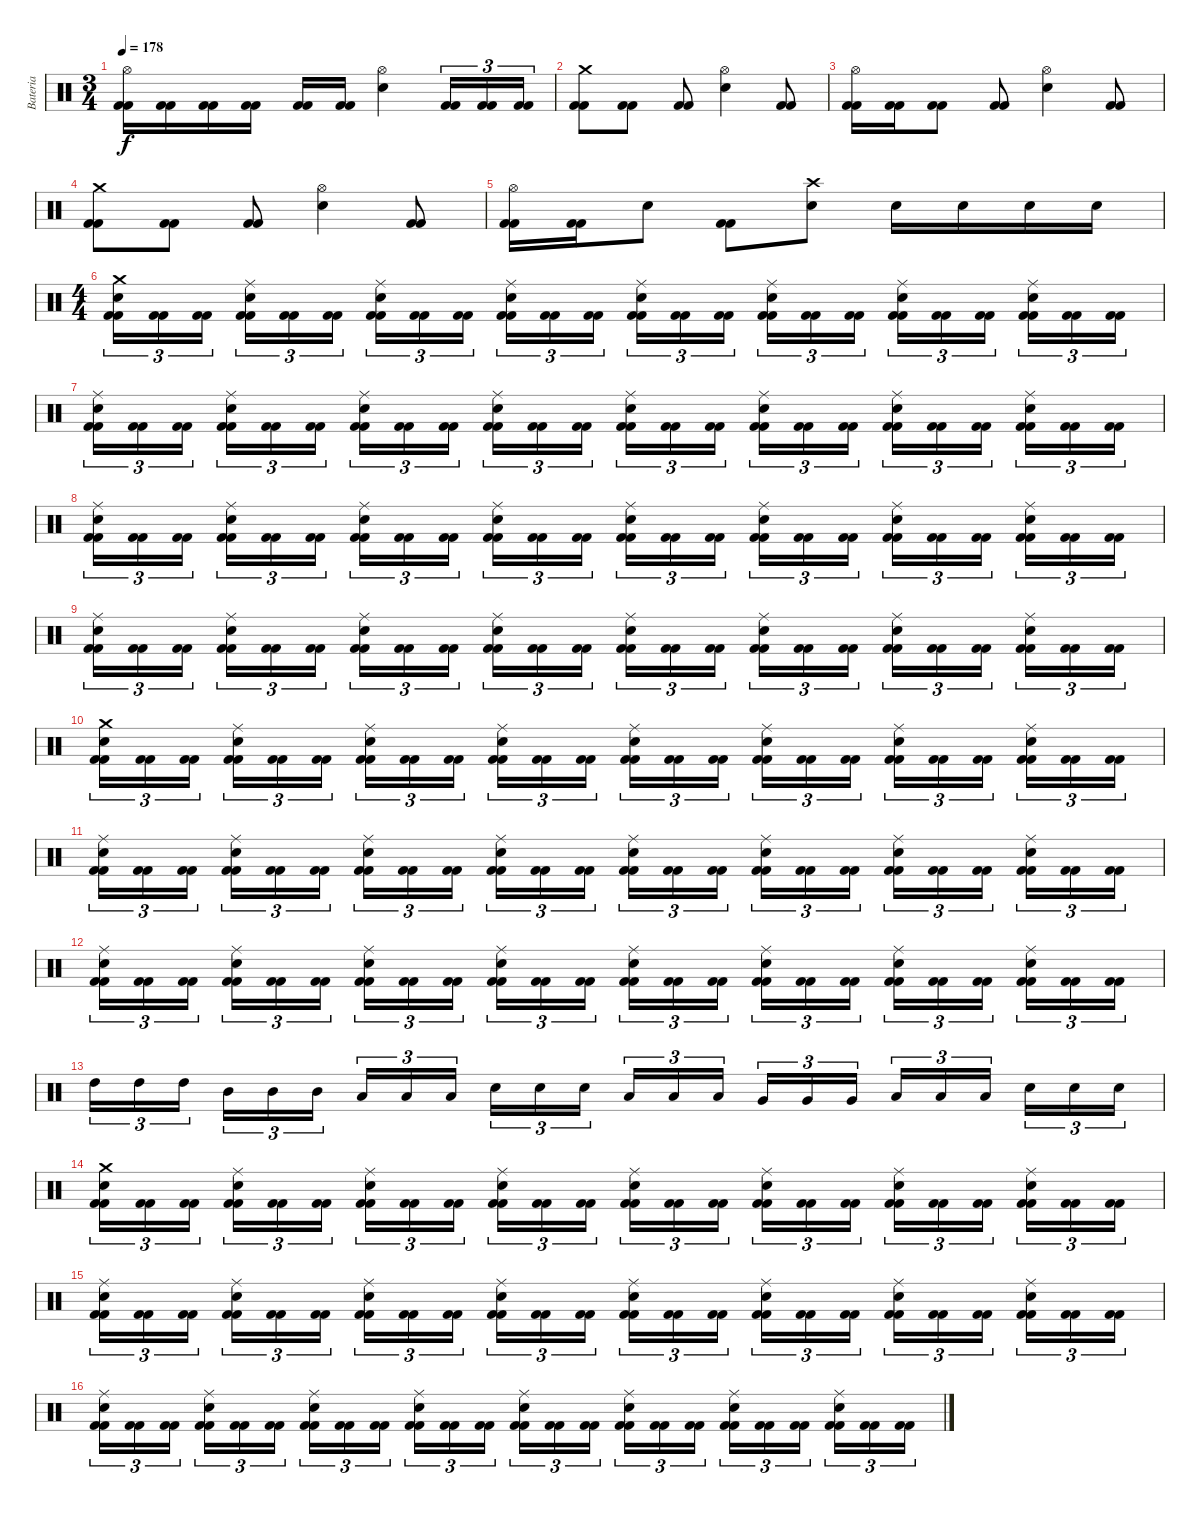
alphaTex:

\track ("Bateria" "Bateria") {instrument percussion}
\staff {score}
\articulation defaults
\ts (3 4)
\tempo 178
\clef neutral
\ks c
("Kick (hit) 2" "Kick (hit) 2" "Hi-Hat (open)").16{dy f} ("Kick (hit) 2" "Kick (hit) 2").16 ("Kick (hit) 2" "Kick (hit) 2").16 ("Kick (hit) 2" "Kick (hit) 2").16 ("Kick (hit) 2" "Kick (hit) 2").16 ("Kick (hit) 2" "Kick (hit) 2").16 ("Snare (hit) 2" "Hi-Hat (open)").4 ("Kick (hit) 2" "Kick (hit) 2").16{tu (3 2)} ("Kick (hit) 2" "Kick (hit) 2").16{tu (3 2)} ("Kick (hit) 2" "Kick (hit) 2").16{tu (3 2)} |
("Kick (hit) 2" "Kick (hit) 2" "Crash medium (hit)").8 ("Kick (hit) 2" "Kick (hit) 2").8 ("Kick (hit) 2" "Kick (hit) 2").8 ("Snare (hit) 2" "Hi-Hat (open)").4 ("Kick (hit) 2" "Kick (hit) 2").8 |
("Kick (hit) 2" "Kick (hit) 2" "Hi-Hat (open)").16 ("Kick (hit) 2" "Kick (hit) 2").16 ("Kick (hit) 2" "Kick (hit) 2").8 ("Kick (hit) 2" "Kick (hit) 2").8 ("Snare (hit) 2" "Hi-Hat (open)").4 ("Kick (hit) 2" "Kick (hit) 2").8 |
("Kick (hit) 2" "Kick (hit) 2" "Crash medium (hit)").8 ("Kick (hit) 2" "Kick (hit) 2").8 ("Kick (hit) 2" "Kick (hit) 2").8 ("Snare (hit) 2" "Hi-Hat (open)").4 ("Kick (hit) 2" "Kick (hit) 2").8 |
("Kick (hit) 2" "Kick (hit) 2" "Hi-Hat (open)").16 ("Kick (hit) 2" "Kick (hit) 2").16 "Snare (hit) 2".8 ("Kick (hit) 2" "Kick (hit) 2").8 ("Snare (hit) 2" "Crash high (hit)").8 "Snare (hit) 2".16 "Snare (hit) 2".16 "Snare (hit) 2".16 "Snare (hit) 2".16 |
\ts (4 4)
("Kick (hit) 2" "Kick (hit) 2" "Snare (hit) 2" "Crash medium (hit)").16{tu (3 2)} ("Kick (hit) 2" "Kick (hit) 2").16{tu (3 2)} ("Kick (hit) 2" "Kick (hit) 2").16{tu (3 2)} ("Kick (hit) 2" "Kick (hit) 2" "Snare (hit) 2" "Ride (middle)").16{tu (3 2)} ("Kick (hit) 2" "Kick (hit) 2").16{tu (3 2)} ("Kick (hit) 2" "Kick (hit) 2").16{tu (3 2)} ("Kick (hit) 2" "Kick (hit) 2" "Snare (hit) 2" "Ride (middle)").16{tu (3 2)} ("Kick (hit) 2" "Kick (hit) 2").16{tu (3 2)} ("Kick (hit) 2" "Kick (hit) 2").16{tu (3 2)} ("Kick (hit) 2" "Kick (hit) 2" "Snare (hit) 2" "Ride (middle)").16{tu (3 2)} ("Kick (hit) 2" "Kick (hit) 2").16{tu (3 2)} ("Kick (hit) 2" "Kick (hit) 2").16{tu (3 2)} ("Kick (hit) 2" "Kick (hit) 2" "Snare (hit) 2" "Ride (middle)").16{tu (3 2)} ("Kick (hit) 2" "Kick (hit) 2").16{tu (3 2)} ("Kick (hit) 2" "Kick (hit) 2").16{tu (3 2)} ("Kick (hit) 2" "Kick (hit) 2" "Snare (hit) 2" "Ride (middle)").16{tu (3 2)} ("Kick (hit) 2" "Kick (hit) 2").16{tu (3 2)} ("Kick (hit) 2" "Kick (hit) 2").16{tu (3 2)} ("Kick (hit) 2" "Kick (hit) 2" "Snare (hit) 2" "Ride (middle)").16{tu (3 2)} ("Kick (hit) 2" "Kick (hit) 2").16{tu (3 2)} ("Kick (hit) 2" "Kick (hit) 2").16{tu (3 2)} ("Kick (hit) 2" "Kick (hit) 2" "Snare (hit) 2" "Ride (middle)").16{tu (3 2)} ("Kick (hit) 2" "Kick (hit) 2").16{tu (3 2)} ("Kick (hit) 2" "Kick (hit) 2").16{tu (3 2)} |
("Kick (hit) 2" "Kick (hit) 2" "Snare (hit) 2" "Ride (middle)").16{tu (3 2)} ("Kick (hit) 2" "Kick (hit) 2").16{tu (3 2)} ("Kick (hit) 2" "Kick (hit) 2").16{tu (3 2)} ("Kick (hit) 2" "Kick (hit) 2" "Snare (hit) 2" "Ride (middle)").16{tu (3 2)} ("Kick (hit) 2" "Kick (hit) 2").16{tu (3 2)} ("Kick (hit) 2" "Kick (hit) 2").16{tu (3 2)} ("Kick (hit) 2" "Kick (hit) 2" "Snare (hit) 2" "Ride (middle)").16{tu (3 2)} ("Kick (hit) 2" "Kick (hit) 2").16{tu (3 2)} ("Kick (hit) 2" "Kick (hit) 2").16{tu (3 2)} ("Kick (hit) 2" "Kick (hit) 2" "Snare (hit) 2" "Ride (middle)").16{tu (3 2)} ("Kick (hit) 2" "Kick (hit) 2").16{tu (3 2)} ("Kick (hit) 2" "Kick (hit) 2").16{tu (3 2)} ("Kick (hit) 2" "Kick (hit) 2" "Snare (hit) 2" "Ride (middle)").16{tu (3 2)} ("Kick (hit) 2" "Kick (hit) 2").16{tu (3 2)} ("Kick (hit) 2" "Kick (hit) 2").16{tu (3 2)} ("Kick (hit) 2" "Kick (hit) 2" "Snare (hit) 2" "Ride (middle)").16{tu (3 2)} ("Kick (hit) 2" "Kick (hit) 2").16{tu (3 2)} ("Kick (hit) 2" "Kick (hit) 2").16{tu (3 2)} ("Kick (hit) 2" "Kick (hit) 2" "Snare (hit) 2" "Ride (middle)").16{tu (3 2)} ("Kick (hit) 2" "Kick (hit) 2").16{tu (3 2)} ("Kick (hit) 2" "Kick (hit) 2").16{tu (3 2)} ("Kick (hit) 2" "Kick (hit) 2" "Snare (hit) 2" "Ride (middle)").16{tu (3 2)} ("Kick (hit) 2" "Kick (hit) 2").16{tu (3 2)} ("Kick (hit) 2" "Kick (hit) 2").16{tu (3 2)} |
("Kick (hit) 2" "Kick (hit) 2" "Snare (hit) 2" "Ride (middle)").16{tu (3 2)} ("Kick (hit) 2" "Kick (hit) 2").16{tu (3 2)} ("Kick (hit) 2" "Kick (hit) 2").16{tu (3 2)} ("Kick (hit) 2" "Kick (hit) 2" "Snare (hit) 2" "Ride (middle)").16{tu (3 2)} ("Kick (hit) 2" "Kick (hit) 2").16{tu (3 2)} ("Kick (hit) 2" "Kick (hit) 2").16{tu (3 2)} ("Kick (hit) 2" "Kick (hit) 2" "Snare (hit) 2" "Ride (middle)").16{tu (3 2)} ("Kick (hit) 2" "Kick (hit) 2").16{tu (3 2)} ("Kick (hit) 2" "Kick (hit) 2").16{tu (3 2)} ("Kick (hit) 2" "Kick (hit) 2" "Snare (hit) 2" "Ride (middle)").16{tu (3 2)} ("Kick (hit) 2" "Kick (hit) 2").16{tu (3 2)} ("Kick (hit) 2" "Kick (hit) 2").16{tu (3 2)} ("Kick (hit) 2" "Kick (hit) 2" "Snare (hit) 2" "Ride (middle)").16{tu (3 2)} ("Kick (hit) 2" "Kick (hit) 2").16{tu (3 2)} ("Kick (hit) 2" "Kick (hit) 2").16{tu (3 2)} ("Kick (hit) 2" "Kick (hit) 2" "Snare (hit) 2" "Ride (middle)").16{tu (3 2)} ("Kick (hit) 2" "Kick (hit) 2").16{tu (3 2)} ("Kick (hit) 2" "Kick (hit) 2").16{tu (3 2)} ("Kick (hit) 2" "Kick (hit) 2" "Snare (hit) 2" "Ride (middle)").16{tu (3 2)} ("Kick (hit) 2" "Kick (hit) 2").16{tu (3 2)} ("Kick (hit) 2" "Kick (hit) 2").16{tu (3 2)} ("Kick (hit) 2" "Kick (hit) 2" "Snare (hit) 2" "Ride (middle)").16{tu (3 2)} ("Kick (hit) 2" "Kick (hit) 2").16{tu (3 2)} ("Kick (hit) 2" "Kick (hit) 2").16{tu (3 2)} |
("Kick (hit) 2" "Kick (hit) 2" "Snare (hit) 2" "Ride (middle)").16{tu (3 2)} ("Kick (hit) 2" "Kick (hit) 2").16{tu (3 2)} ("Kick (hit) 2" "Kick (hit) 2").16{tu (3 2)} ("Kick (hit) 2" "Kick (hit) 2" "Snare (hit) 2" "Ride (middle)").16{tu (3 2)} ("Kick (hit) 2" "Kick (hit) 2").16{tu (3 2)} ("Kick (hit) 2" "Kick (hit) 2").16{tu (3 2)} ("Kick (hit) 2" "Kick (hit) 2" "Snare (hit) 2" "Ride (middle)").16{tu (3 2)} ("Kick (hit) 2" "Kick (hit) 2").16{tu (3 2)} ("Kick (hit) 2" "Kick (hit) 2").16{tu (3 2)} ("Kick (hit) 2" "Kick (hit) 2" "Snare (hit) 2" "Ride (middle)").16{tu (3 2)} ("Kick (hit) 2" "Kick (hit) 2").16{tu (3 2)} ("Kick (hit) 2" "Kick (hit) 2").16{tu (3 2)} ("Kick (hit) 2" "Kick (hit) 2" "Snare (hit) 2" "Ride (middle)").16{tu (3 2)} ("Kick (hit) 2" "Kick (hit) 2").16{tu (3 2)} ("Kick (hit) 2" "Kick (hit) 2").16{tu (3 2)} ("Kick (hit) 2" "Kick (hit) 2" "Snare (hit) 2" "Ride (middle)").16{tu (3 2)} ("Kick (hit) 2" "Kick (hit) 2").16{tu (3 2)} ("Kick (hit) 2" "Kick (hit) 2").16{tu (3 2)} ("Kick (hit) 2" "Kick (hit) 2" "Snare (hit) 2" "Ride (middle)").16{tu (3 2)} ("Kick (hit) 2" "Kick (hit) 2").16{tu (3 2)} ("Kick (hit) 2" "Kick (hit) 2").16{tu (3 2)} ("Kick (hit) 2" "Kick (hit) 2" "Snare (hit) 2" "Ride (middle)").16{tu (3 2)} ("Kick (hit) 2" "Kick (hit) 2").16{tu (3 2)} ("Kick (hit) 2" "Kick (hit) 2").16{tu (3 2)} |
("Kick (hit) 2" "Kick (hit) 2" "Snare (hit) 2" "Crash medium (hit)").16{tu (3 2)} ("Kick (hit) 2" "Kick (hit) 2").16{tu (3 2)} ("Kick (hit) 2" "Kick (hit) 2").16{tu (3 2)} ("Kick (hit) 2" "Kick (hit) 2" "Snare (hit) 2" "Ride (middle)").16{tu (3 2)} ("Kick (hit) 2" "Kick (hit) 2").16{tu (3 2)} ("Kick (hit) 2" "Kick (hit) 2").16{tu (3 2)} ("Kick (hit) 2" "Kick (hit) 2" "Snare (hit) 2" "Ride (middle)").16{tu (3 2)} ("Kick (hit) 2" "Kick (hit) 2").16{tu (3 2)} ("Kick (hit) 2" "Kick (hit) 2").16{tu (3 2)} ("Kick (hit) 2" "Kick (hit) 2" "Snare (hit) 2" "Ride (middle)").16{tu (3 2)} ("Kick (hit) 2" "Kick (hit) 2").16{tu (3 2)} ("Kick (hit) 2" "Kick (hit) 2").16{tu (3 2)} ("Kick (hit) 2" "Kick (hit) 2" "Snare (hit) 2" "Ride (middle)").16{tu (3 2)} ("Kick (hit) 2" "Kick (hit) 2").16{tu (3 2)} ("Kick (hit) 2" "Kick (hit) 2").16{tu (3 2)} ("Kick (hit) 2" "Kick (hit) 2" "Snare (hit) 2" "Ride (middle)").16{tu (3 2)} ("Kick (hit) 2" "Kick (hit) 2").16{tu (3 2)} ("Kick (hit) 2" "Kick (hit) 2").16{tu (3 2)} ("Kick (hit) 2" "Kick (hit) 2" "Snare (hit) 2" "Ride (middle)").16{tu (3 2)} ("Kick (hit) 2" "Kick (hit) 2").16{tu (3 2)} ("Kick (hit) 2" "Kick (hit) 2").16{tu (3 2)} ("Kick (hit) 2" "Kick (hit) 2" "Snare (hit) 2" "Ride (middle)").16{tu (3 2)} ("Kick (hit) 2" "Kick (hit) 2").16{tu (3 2)} ("Kick (hit) 2" "Kick (hit) 2").16{tu (3 2)} |
("Kick (hit) 2" "Kick (hit) 2" "Snare (hit) 2" "Ride (middle)").16{tu (3 2)} ("Kick (hit) 2" "Kick (hit) 2").16{tu (3 2)} ("Kick (hit) 2" "Kick (hit) 2").16{tu (3 2)} ("Kick (hit) 2" "Kick (hit) 2" "Snare (hit) 2" "Ride (middle)").16{tu (3 2)} ("Kick (hit) 2" "Kick (hit) 2").16{tu (3 2)} ("Kick (hit) 2" "Kick (hit) 2").16{tu (3 2)} ("Kick (hit) 2" "Kick (hit) 2" "Snare (hit) 2" "Ride (middle)").16{tu (3 2)} ("Kick (hit) 2" "Kick (hit) 2").16{tu (3 2)} ("Kick (hit) 2" "Kick (hit) 2").16{tu (3 2)} ("Kick (hit) 2" "Kick (hit) 2" "Snare (hit) 2" "Ride (middle)").16{tu (3 2)} ("Kick (hit) 2" "Kick (hit) 2").16{tu (3 2)} ("Kick (hit) 2" "Kick (hit) 2").16{tu (3 2)} ("Kick (hit) 2" "Kick (hit) 2" "Snare (hit) 2" "Ride (middle)").16{tu (3 2)} ("Kick (hit) 2" "Kick (hit) 2").16{tu (3 2)} ("Kick (hit) 2" "Kick (hit) 2").16{tu (3 2)} ("Kick (hit) 2" "Kick (hit) 2" "Snare (hit) 2" "Ride (middle)").16{tu (3 2)} ("Kick (hit) 2" "Kick (hit) 2").16{tu (3 2)} ("Kick (hit) 2" "Kick (hit) 2").16{tu (3 2)} ("Kick (hit) 2" "Kick (hit) 2" "Snare (hit) 2" "Ride (middle)").16{tu (3 2)} ("Kick (hit) 2" "Kick (hit) 2").16{tu (3 2)} ("Kick (hit) 2" "Kick (hit) 2").16{tu (3 2)} ("Kick (hit) 2" "Kick (hit) 2" "Snare (hit) 2" "Ride (middle)").16{tu (3 2)} ("Kick (hit) 2" "Kick (hit) 2").16{tu (3 2)} ("Kick (hit) 2" "Kick (hit) 2").16{tu (3 2)} |
("Kick (hit) 2" "Kick (hit) 2" "Snare (hit) 2" "Ride (middle)").16{tu (3 2)} ("Kick (hit) 2" "Kick (hit) 2").16{tu (3 2)} ("Kick (hit) 2" "Kick (hit) 2").16{tu (3 2)} ("Kick (hit) 2" "Kick (hit) 2" "Snare (hit) 2" "Ride (middle)").16{tu (3 2)} ("Kick (hit) 2" "Kick (hit) 2").16{tu (3 2)} ("Kick (hit) 2" "Kick (hit) 2").16{tu (3 2)} ("Kick (hit) 2" "Kick (hit) 2" "Snare (hit) 2" "Ride (middle)").16{tu (3 2)} ("Kick (hit) 2" "Kick (hit) 2").16{tu (3 2)} ("Kick (hit) 2" "Kick (hit) 2").16{tu (3 2)} ("Kick (hit) 2" "Kick (hit) 2" "Snare (hit) 2" "Ride (middle)").16{tu (3 2)} ("Kick (hit) 2" "Kick (hit) 2").16{tu (3 2)} ("Kick (hit) 2" "Kick (hit) 2").16{tu (3 2)} ("Kick (hit) 2" "Kick (hit) 2" "Snare (hit) 2" "Ride (middle)").16{tu (3 2)} ("Kick (hit) 2" "Kick (hit) 2").16{tu (3 2)} ("Kick (hit) 2" "Kick (hit) 2").16{tu (3 2)} ("Kick (hit) 2" "Kick (hit) 2" "Snare (hit) 2" "Ride (middle)").16{tu (3 2)} ("Kick (hit) 2" "Kick (hit) 2").16{tu (3 2)} ("Kick (hit) 2" "Kick (hit) 2").16{tu (3 2)} ("Kick (hit) 2" "Kick (hit) 2" "Snare (hit) 2" "Ride (middle)").16{tu (3 2)} ("Kick (hit) 2" "Kick (hit) 2").16{tu (3 2)} ("Kick (hit) 2" "Kick (hit) 2").16{tu (3 2)} ("Kick (hit) 2" "Kick (hit) 2" "Snare (hit) 2" "Ride (middle)").16{tu (3 2)} ("Kick (hit) 2" "Kick (hit) 2").16{tu (3 2)} ("Kick (hit) 2" "Kick (hit) 2").16{tu (3 2)} |
"High Tom (hit)".16{tu (3 2)} "High Tom (hit)".16{tu (3 2)} "High Tom (hit)".16{tu (3 2)} "Mid Tom (hit)".16{tu (3 2)} "Mid Tom (hit)".16{tu (3 2)} "Mid Tom (hit)".16{tu (3 2)} "Low Tom (hit)".16{tu (3 2)} "Low Tom (hit)".16{tu (3 2)} "Low Tom (hit)".16{tu (3 2)} "Snare (hit) 2".16{tu (3 2)} "Snare (hit) 2".16{tu (3 2)} "Snare (hit) 2".16{tu (3 2)} "Low Tom (hit)".16{tu (3 2)} "Low Tom (hit)".16{tu (3 2)} "Low Tom (hit)".16{tu (3 2)} "Very Low Tom (hit)".16{tu (3 2)} "Very Low Tom (hit)".16{tu (3 2)} "Very Low Tom (hit)".16{tu (3 2)} "Low Floor Tom (hit)".16{tu (3 2)} "Low Floor Tom (hit)".16{tu (3 2)} "Low Floor Tom (hit)".16{tu (3 2)} "Snare (hit) 2".16{tu (3 2)} "Snare (hit) 2".16{tu (3 2)} "Snare (hit) 2".16{tu (3 2)} |
("Kick (hit) 2" "Kick (hit) 2" "Snare (hit) 2" "Crash medium (hit)").16{tu (3 2)} ("Kick (hit) 2" "Kick (hit) 2").16{tu (3 2)} ("Kick (hit) 2" "Kick (hit) 2").16{tu (3 2)} ("Kick (hit) 2" "Kick (hit) 2" "Snare (hit) 2" "Ride (middle)").16{tu (3 2)} ("Kick (hit) 2" "Kick (hit) 2").16{tu (3 2)} ("Kick (hit) 2" "Kick (hit) 2").16{tu (3 2)} ("Kick (hit) 2" "Kick (hit) 2" "Snare (hit) 2" "Ride (middle)").16{tu (3 2)} ("Kick (hit) 2" "Kick (hit) 2").16{tu (3 2)} ("Kick (hit) 2" "Kick (hit) 2").16{tu (3 2)} ("Kick (hit) 2" "Kick (hit) 2" "Snare (hit) 2" "Ride (middle)").16{tu (3 2)} ("Kick (hit) 2" "Kick (hit) 2").16{tu (3 2)} ("Kick (hit) 2" "Kick (hit) 2").16{tu (3 2)} ("Kick (hit) 2" "Kick (hit) 2" "Snare (hit) 2" "Ride (middle)").16{tu (3 2)} ("Kick (hit) 2" "Kick (hit) 2").16{tu (3 2)} ("Kick (hit) 2" "Kick (hit) 2").16{tu (3 2)} ("Kick (hit) 2" "Kick (hit) 2" "Snare (hit) 2" "Ride (middle)").16{tu (3 2)} ("Kick (hit) 2" "Kick (hit) 2").16{tu (3 2)} ("Kick (hit) 2" "Kick (hit) 2").16{tu (3 2)} ("Kick (hit) 2" "Kick (hit) 2" "Snare (hit) 2" "Ride (middle)").16{tu (3 2)} ("Kick (hit) 2" "Kick (hit) 2").16{tu (3 2)} ("Kick (hit) 2" "Kick (hit) 2").16{tu (3 2)} ("Kick (hit) 2" "Kick (hit) 2" "Snare (hit) 2" "Ride (middle)").16{tu (3 2)} ("Kick (hit) 2" "Kick (hit) 2").16{tu (3 2)} ("Kick (hit) 2" "Kick (hit) 2").16{tu (3 2)} |
("Kick (hit) 2" "Kick (hit) 2" "Snare (hit) 2" "Ride (middle)").16{tu (3 2)} ("Kick (hit) 2" "Kick (hit) 2").16{tu (3 2)} ("Kick (hit) 2" "Kick (hit) 2").16{tu (3 2)} ("Kick (hit) 2" "Kick (hit) 2" "Snare (hit) 2" "Ride (middle)").16{tu (3 2)} ("Kick (hit) 2" "Kick (hit) 2").16{tu (3 2)} ("Kick (hit) 2" "Kick (hit) 2").16{tu (3 2)} ("Kick (hit) 2" "Kick (hit) 2" "Snare (hit) 2" "Ride (middle)").16{tu (3 2)} ("Kick (hit) 2" "Kick (hit) 2").16{tu (3 2)} ("Kick (hit) 2" "Kick (hit) 2").16{tu (3 2)} ("Kick (hit) 2" "Kick (hit) 2" "Snare (hit) 2" "Ride (middle)").16{tu (3 2)} ("Kick (hit) 2" "Kick (hit) 2").16{tu (3 2)} ("Kick (hit) 2" "Kick (hit) 2").16{tu (3 2)} ("Kick (hit) 2" "Kick (hit) 2" "Snare (hit) 2" "Ride (middle)").16{tu (3 2)} ("Kick (hit) 2" "Kick (hit) 2").16{tu (3 2)} ("Kick (hit) 2" "Kick (hit) 2").16{tu (3 2)} ("Kick (hit) 2" "Kick (hit) 2" "Snare (hit) 2" "Ride (middle)").16{tu (3 2)} ("Kick (hit) 2" "Kick (hit) 2").16{tu (3 2)} ("Kick (hit) 2" "Kick (hit) 2").16{tu (3 2)} ("Kick (hit) 2" "Kick (hit) 2" "Snare (hit) 2" "Ride (middle)").16{tu (3 2)} ("Kick (hit) 2" "Kick (hit) 2").16{tu (3 2)} ("Kick (hit) 2" "Kick (hit) 2").16{tu (3 2)} ("Kick (hit) 2" "Kick (hit) 2" "Snare (hit) 2" "Ride (middle)").16{tu (3 2)} ("Kick (hit) 2" "Kick (hit) 2").16{tu (3 2)} ("Kick (hit) 2" "Kick (hit) 2").16{tu (3 2)} |
("Kick (hit) 2" "Kick (hit) 2" "Snare (hit) 2" "Ride (middle)").16{tu (3 2)} ("Kick (hit) 2" "Kick (hit) 2").16{tu (3 2)} ("Kick (hit) 2" "Kick (hit) 2").16{tu (3 2)} ("Kick (hit) 2" "Kick (hit) 2" "Snare (hit) 2" "Ride (middle)").16{tu (3 2)} ("Kick (hit) 2" "Kick (hit) 2").16{tu (3 2)} ("Kick (hit) 2" "Kick (hit) 2").16{tu (3 2)} ("Kick (hit) 2" "Kick (hit) 2" "Snare (hit) 2" "Ride (middle)").16{tu (3 2)} ("Kick (hit) 2" "Kick (hit) 2").16{tu (3 2)} ("Kick (hit) 2" "Kick (hit) 2").16{tu (3 2)} ("Kick (hit) 2" "Kick (hit) 2" "Snare (hit) 2" "Ride (middle)").16{tu (3 2)} ("Kick (hit) 2" "Kick (hit) 2").16{tu (3 2)} ("Kick (hit) 2" "Kick (hit) 2").16{tu (3 2)} ("Kick (hit) 2" "Kick (hit) 2" "Snare (hit) 2" "Ride (middle)").16{tu (3 2)} ("Kick (hit) 2" "Kick (hit) 2").16{tu (3 2)} ("Kick (hit) 2" "Kick (hit) 2").16{tu (3 2)} ("Kick (hit) 2" "Kick (hit) 2" "Snare (hit) 2" "Ride (middle)").16{tu (3 2)} ("Kick (hit) 2" "Kick (hit) 2").16{tu (3 2)} ("Kick (hit) 2" "Kick (hit) 2").16{tu (3 2)} ("Kick (hit) 2" "Kick (hit) 2" "Snare (hit) 2" "Ride (middle)").16{tu (3 2)} ("Kick (hit) 2" "Kick (hit) 2").16{tu (3 2)} ("Kick (hit) 2" "Kick (hit) 2").16{tu (3 2)} ("Kick (hit) 2" "Kick (hit) 2" "Snare (hit) 2" "Ride (middle)").16{tu (3 2)} ("Kick (hit) 2" "Kick (hit) 2").16{tu (3 2)} ("Kick (hit) 2" "Kick (hit) 2").16{tu (3 2)}
